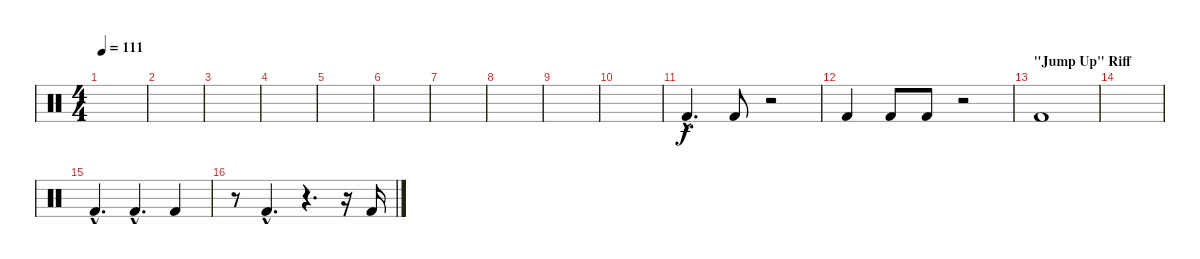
\track "" {instrument percussion}
\staff {score}
\articulation defaults
\ts (4 4)
\tempo 111
\clef neutral
\ks c
|
|
|
|
|
|
|
|
|
|
"Kick (hit) 2"{hac}.4{d} "Kick (hit) 2".8 r.2 |
"Kick (hit) 2".4 "Kick (hit) 2".8 "Kick (hit) 2".8 r.2 |
\section ("" "\"Jump Up\" Riff")
"Kick (hit) 2".1 |
|
"Kick (hit) 2"{hac}.4{d} "Kick (hit) 2"{hac}.4{d} "Kick (hit) 2".4 |
r.8 "Kick (hit) 2"{hac}.4{d} r.4{d} r.16 "Kick (hit) 2".16
